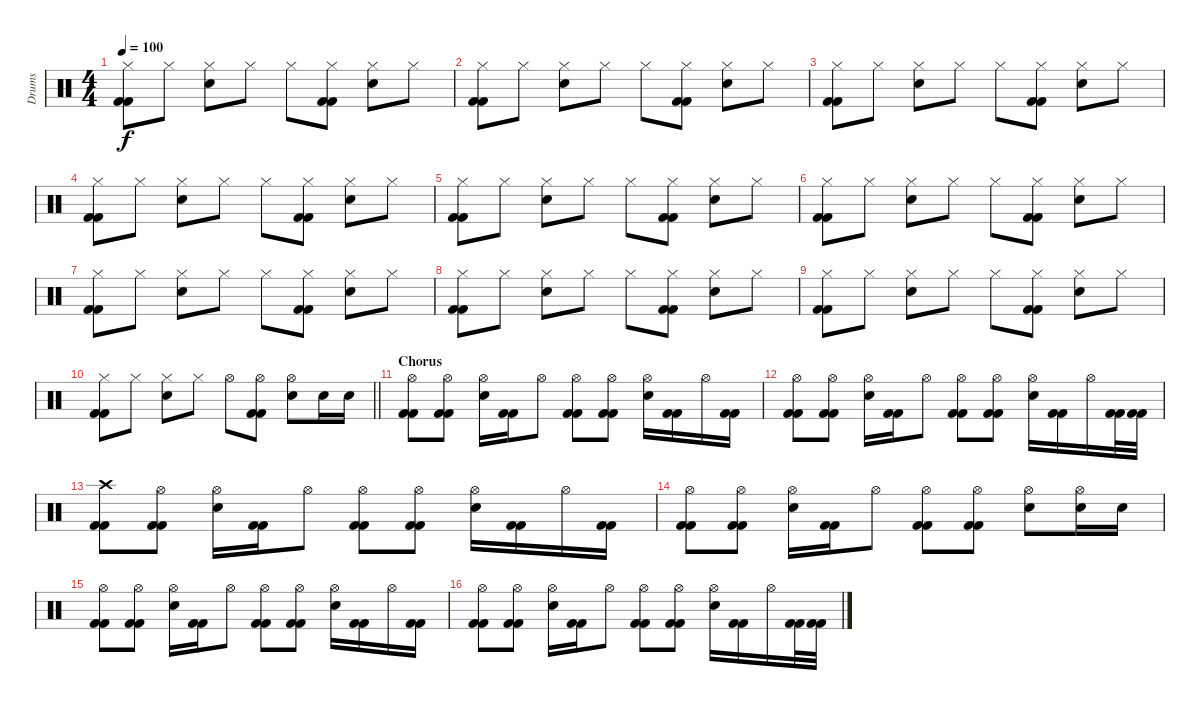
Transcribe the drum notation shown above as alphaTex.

\track ("Drums" "Drums") {instrument percussion}
\staff {score}
\articulation defaults
\ts (4 4)
\tempo 100
\clef neutral
\ks c
("Hi-Hat (closed)" "Kick (hit) 2" "Kick (hit) 2").8{dy f} "Hi-Hat (closed)".8 ("Hi-Hat (closed)" "Electric Snare (hit)").8 "Hi-Hat (closed)".8 "Hi-Hat (closed)".8 ("Hi-Hat (closed)" "Kick (hit) 2" "Kick (hit) 2").8 ("Hi-Hat (closed)" "Electric Snare (hit)").8 "Hi-Hat (closed)".8 |
("Hi-Hat (closed)" "Kick (hit) 2" "Kick (hit) 2").8 "Hi-Hat (closed)".8 ("Hi-Hat (closed)" "Electric Snare (hit)").8 "Hi-Hat (closed)".8 "Hi-Hat (closed)".8 ("Hi-Hat (closed)" "Kick (hit) 2" "Kick (hit) 2").8 ("Hi-Hat (closed)" "Electric Snare (hit)").8 "Hi-Hat (closed)".8 |
("Hi-Hat (closed)" "Kick (hit) 2" "Kick (hit) 2").8 "Hi-Hat (closed)".8 ("Hi-Hat (closed)" "Electric Snare (hit)").8 "Hi-Hat (closed)".8 "Hi-Hat (closed)".8 ("Hi-Hat (closed)" "Kick (hit) 2" "Kick (hit) 2").8 ("Hi-Hat (closed)" "Electric Snare (hit)").8 "Hi-Hat (closed)".8 |
("Hi-Hat (closed)" "Kick (hit) 2" "Kick (hit) 2").8 "Hi-Hat (closed)".8 ("Hi-Hat (closed)" "Electric Snare (hit)").8 "Hi-Hat (closed)".8 "Hi-Hat (closed)".8 ("Hi-Hat (closed)" "Kick (hit) 2" "Kick (hit) 2").8 ("Hi-Hat (closed)" "Electric Snare (hit)").8 "Hi-Hat (closed)".8 |
("Hi-Hat (closed)" "Kick (hit) 2" "Kick (hit) 2").8 "Hi-Hat (closed)".8 ("Hi-Hat (closed)" "Electric Snare (hit)").8 "Hi-Hat (closed)".8 "Hi-Hat (closed)".8 ("Hi-Hat (closed)" "Kick (hit) 2" "Kick (hit) 2").8 ("Hi-Hat (closed)" "Electric Snare (hit)").8 "Hi-Hat (closed)".8 |
("Hi-Hat (closed)" "Kick (hit) 2" "Kick (hit) 2").8 "Hi-Hat (closed)".8 ("Hi-Hat (closed)" "Electric Snare (hit)").8 "Hi-Hat (closed)".8 "Hi-Hat (closed)".8 ("Hi-Hat (closed)" "Kick (hit) 2" "Kick (hit) 2").8 ("Hi-Hat (closed)" "Electric Snare (hit)").8 "Hi-Hat (closed)".8 |
("Hi-Hat (closed)" "Kick (hit) 2" "Kick (hit) 2").8 "Hi-Hat (closed)".8 ("Hi-Hat (closed)" "Electric Snare (hit)").8 "Hi-Hat (closed)".8 "Hi-Hat (closed)".8 ("Hi-Hat (closed)" "Kick (hit) 2" "Kick (hit) 2").8 ("Hi-Hat (closed)" "Electric Snare (hit)").8 "Hi-Hat (closed)".8 |
("Hi-Hat (closed)" "Kick (hit) 2" "Kick (hit) 2").8 "Hi-Hat (closed)".8 ("Hi-Hat (closed)" "Electric Snare (hit)").8 "Hi-Hat (closed)".8 "Hi-Hat (closed)".8 ("Hi-Hat (closed)" "Kick (hit) 2" "Kick (hit) 2").8 ("Hi-Hat (closed)" "Electric Snare (hit)").8 "Hi-Hat (closed)".8 |
("Hi-Hat (closed)" "Kick (hit) 2" "Kick (hit) 2").8 "Hi-Hat (closed)".8 ("Hi-Hat (closed)" "Electric Snare (hit)").8 "Hi-Hat (closed)".8 "Hi-Hat (closed)".8 ("Hi-Hat (closed)" "Kick (hit) 2" "Kick (hit) 2").8 ("Hi-Hat (closed)" "Electric Snare (hit)").8 "Hi-Hat (closed)".8 |
\barLineRight lightlight
("Hi-Hat (closed)" "Kick (hit) 2" "Kick (hit) 2").8 "Hi-Hat (closed)".8 ("Hi-Hat (closed)" "Electric Snare (hit)").8 "Hi-Hat (closed)".8 "Hi-Hat (open)".8 ("Hi-Hat (open)" "Kick (hit) 2" "Kick (hit) 2").8 ("Hi-Hat (open)" "Electric Snare (hit)").8 "Electric Snare (hit)".16 "Electric Snare (hit)".16 |
\section ("" "Chorus")
("Hi-Hat (open)" "Kick (hit) 2" "Kick (hit) 2").8 ("Hi-Hat (open)" "Kick (hit) 2" "Kick (hit) 2").8 ("Hi-Hat (open)" "Electric Snare (hit)").16 ("Kick (hit) 2" "Kick (hit) 2").16 "Hi-Hat (open)".8 ("Hi-Hat (open)" "Kick (hit) 2" "Kick (hit) 2").8 ("Hi-Hat (open)" "Kick (hit) 2" "Kick (hit) 2").8 ("Hi-Hat (open)" "Electric Snare (hit)").16 ("Kick (hit) 2" "Kick (hit) 2").16 "Hi-Hat (open)".16 ("Kick (hit) 2" "Kick (hit) 2").16 |
("Hi-Hat (open)" "Kick (hit) 2" "Kick (hit) 2").8 ("Hi-Hat (open)" "Kick (hit) 2" "Kick (hit) 2").8 ("Hi-Hat (open)" "Electric Snare (hit)").16 ("Kick (hit) 2" "Kick (hit) 2").16 "Hi-Hat (open)".8 ("Hi-Hat (open)" "Kick (hit) 2" "Kick (hit) 2").8 ("Hi-Hat (open)" "Kick (hit) 2" "Kick (hit) 2").8 ("Hi-Hat (open)" "Electric Snare (hit)").16 ("Kick (hit) 2" "Kick (hit) 2").16 "Hi-Hat (open)".16 ("Kick (hit) 2" "Kick (hit) 2").32 ("Kick (hit) 2" "Kick (hit) 2").32 |
("Crash high (hit)" "Kick (hit) 2" "Kick (hit) 2").8 ("Hi-Hat (open)" "Kick (hit) 2" "Kick (hit) 2").8 ("Hi-Hat (open)" "Electric Snare (hit)").16 ("Kick (hit) 2" "Kick (hit) 2").16 "Hi-Hat (open)".8 ("Hi-Hat (open)" "Kick (hit) 2" "Kick (hit) 2").8 ("Hi-Hat (open)" "Kick (hit) 2" "Kick (hit) 2").8 ("Hi-Hat (open)" "Electric Snare (hit)").16 ("Kick (hit) 2" "Kick (hit) 2").16 "Hi-Hat (open)".16 ("Kick (hit) 2" "Kick (hit) 2").16 |
("Hi-Hat (open)" "Kick (hit) 2" "Kick (hit) 2").8 ("Hi-Hat (open)" "Kick (hit) 2" "Kick (hit) 2").8 ("Hi-Hat (open)" "Electric Snare (hit)").16 ("Kick (hit) 2" "Kick (hit) 2").16 "Hi-Hat (open)".8 ("Hi-Hat (open)" "Kick (hit) 2" "Kick (hit) 2").8 ("Hi-Hat (open)" "Kick (hit) 2" "Kick (hit) 2").8 ("Hi-Hat (open)" "Electric Snare (hit)").8 ("Hi-Hat (open)" "Electric Snare (hit)").16 "Electric Snare (hit)".16 |
("Hi-Hat (open)" "Kick (hit) 2" "Kick (hit) 2").8 ("Hi-Hat (open)" "Kick (hit) 2" "Kick (hit) 2").8 ("Hi-Hat (open)" "Electric Snare (hit)").16 ("Kick (hit) 2" "Kick (hit) 2").16 "Hi-Hat (open)".8 ("Hi-Hat (open)" "Kick (hit) 2" "Kick (hit) 2").8 ("Hi-Hat (open)" "Kick (hit) 2" "Kick (hit) 2").8 ("Hi-Hat (open)" "Electric Snare (hit)").16 ("Kick (hit) 2" "Kick (hit) 2").16 "Hi-Hat (open)".16 ("Kick (hit) 2" "Kick (hit) 2").16 |
("Hi-Hat (open)" "Kick (hit) 2" "Kick (hit) 2").8 ("Hi-Hat (open)" "Kick (hit) 2" "Kick (hit) 2").8 ("Hi-Hat (open)" "Electric Snare (hit)").16 ("Kick (hit) 2" "Kick (hit) 2").16 "Hi-Hat (open)".8 ("Hi-Hat (open)" "Kick (hit) 2" "Kick (hit) 2").8 ("Hi-Hat (open)" "Kick (hit) 2" "Kick (hit) 2").8 ("Hi-Hat (open)" "Electric Snare (hit)").16 ("Kick (hit) 2" "Kick (hit) 2").16 "Hi-Hat (open)".16 ("Kick (hit) 2" "Kick (hit) 2").32 ("Kick (hit) 2" "Kick (hit) 2").32
